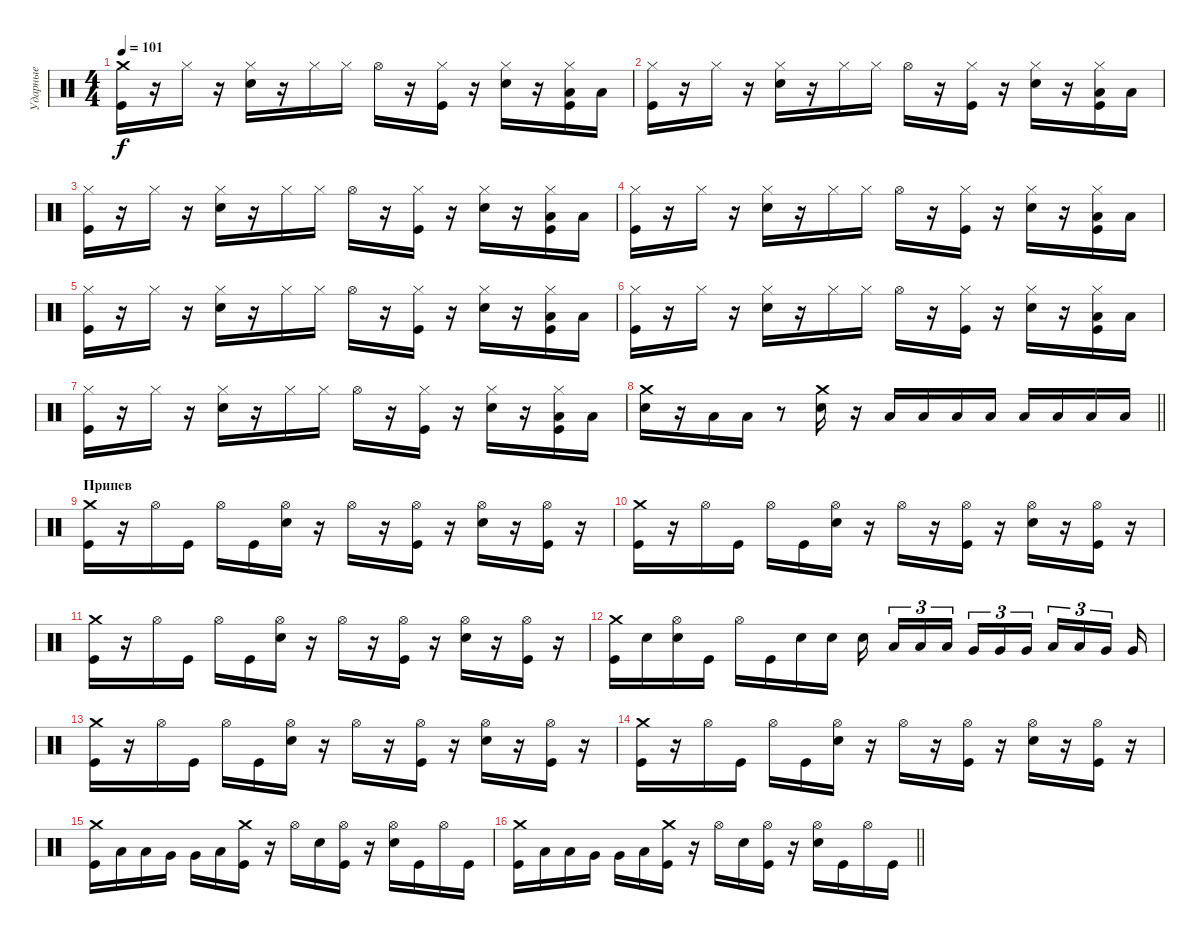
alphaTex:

\track ("Ударные" "Ударные") {instrument percussion}
\staff {score}
\articulation defaults
\ts (4 4)
\tempo 101
\clef neutral
\ks c
("Crash medium (hit)" "Kick (hit)").16{dy f} r.16 "Hi-Hat (closed)".16 r.16 ("Hi-Hat (closed)" "Electric Snare (hit)").16 r.16 "Hi-Hat (closed)".16 "Hi-Hat (closed)".16 "Hi-Hat (open)".16 r.16 ("Hi-Hat (closed)" "Kick (hit)").16 r.16 ("Hi-Hat (closed)" "Electric Snare (hit)").16 r.16 ("Hi-Hat (closed)" "Low Tom (hit)" "Kick (hit)").16 "Low Tom (hit)".16 |
("Hi-Hat (closed)" "Kick (hit)").16 r.16 "Hi-Hat (closed)".16 r.16 ("Hi-Hat (closed)" "Electric Snare (hit)").16 r.16 "Hi-Hat (closed)".16 "Hi-Hat (closed)".16 "Hi-Hat (open)".16 r.16 ("Hi-Hat (closed)" "Kick (hit)").16 r.16 ("Hi-Hat (closed)" "Electric Snare (hit)").16 r.16 ("Hi-Hat (closed)" "Low Tom (hit)" "Kick (hit)").16 "Low Tom (hit)".16 |
("Hi-Hat (closed)" "Kick (hit)").16 r.16 "Hi-Hat (closed)".16 r.16 ("Hi-Hat (closed)" "Electric Snare (hit)").16 r.16 "Hi-Hat (closed)".16 "Hi-Hat (closed)".16 "Hi-Hat (open)".16 r.16 ("Hi-Hat (closed)" "Kick (hit)").16 r.16 ("Hi-Hat (closed)" "Electric Snare (hit)").16 r.16 ("Hi-Hat (closed)" "Low Tom (hit)" "Kick (hit)").16 "Low Tom (hit)".16 |
("Hi-Hat (closed)" "Kick (hit)").16 r.16 "Hi-Hat (closed)".16 r.16 ("Hi-Hat (closed)" "Electric Snare (hit)").16 r.16 "Hi-Hat (closed)".16 "Hi-Hat (closed)".16 "Hi-Hat (open)".16 r.16 ("Hi-Hat (closed)" "Kick (hit)").16 r.16 ("Hi-Hat (closed)" "Electric Snare (hit)").16 r.16 ("Hi-Hat (closed)" "Low Tom (hit)" "Kick (hit)").16 "Low Tom (hit)".16 |
("Hi-Hat (closed)" "Kick (hit)").16 r.16 "Hi-Hat (closed)".16 r.16 ("Hi-Hat (closed)" "Electric Snare (hit)").16 r.16 "Hi-Hat (closed)".16 "Hi-Hat (closed)".16 "Hi-Hat (open)".16 r.16 ("Hi-Hat (closed)" "Kick (hit)").16 r.16 ("Hi-Hat (closed)" "Electric Snare (hit)").16 r.16 ("Hi-Hat (closed)" "Low Tom (hit)" "Kick (hit)").16 "Low Tom (hit)".16 |
("Hi-Hat (closed)" "Kick (hit)").16 r.16 "Hi-Hat (closed)".16 r.16 ("Hi-Hat (closed)" "Electric Snare (hit)").16 r.16 "Hi-Hat (closed)".16 "Hi-Hat (closed)".16 "Hi-Hat (open)".16 r.16 ("Hi-Hat (closed)" "Kick (hit)").16 r.16 ("Hi-Hat (closed)" "Electric Snare (hit)").16 r.16 ("Hi-Hat (closed)" "Low Tom (hit)" "Kick (hit)").16 "Low Tom (hit)".16 |
("Hi-Hat (closed)" "Kick (hit)").16 r.16 "Hi-Hat (closed)".16 r.16 ("Hi-Hat (closed)" "Electric Snare (hit)").16 r.16 "Hi-Hat (closed)".16 "Hi-Hat (closed)".16 "Hi-Hat (open)".16 r.16 ("Hi-Hat (closed)" "Kick (hit)").16 r.16 ("Hi-Hat (closed)" "Electric Snare (hit)").16 r.16 ("Hi-Hat (closed)" "Low Tom (hit)" "Kick (hit)").16 "Low Tom (hit)".16 |
\barLineRight lightlight
("Crash medium (hit)" "Electric Snare (hit)").16 r.16 "Low Tom (hit)".16 "Low Tom (hit)".16 r.8 ("Crash medium (hit)" "Electric Snare (hit)").16 r.16 "Low Tom (hit)".16 "Low Tom (hit)".16 "Low Tom (hit)".16 "Low Tom (hit)".16 "Low Tom (hit)".16 "Low Tom (hit)".16 "Low Tom (hit)".16 "Low Tom (hit)".16 |
\section ("" "Припев")
("Crash medium (hit)" "Kick (hit)").16 r.16 "Hi-Hat (open)".16 "Kick (hit)".16 "Hi-Hat (open)".16 "Kick (hit)".16 ("Hi-Hat (open)" "Electric Snare (hit)").16 r.16 "Hi-Hat (open)".16 r.16 ("Hi-Hat (open)" "Kick (hit)").16 r.16 ("Hi-Hat (open)" "Electric Snare (hit)").16 r.16 ("Hi-Hat (open)" "Kick (hit)").16 r.16 |
("Crash medium (hit)" "Kick (hit)").16 r.16 "Hi-Hat (open)".16 "Kick (hit)".16 "Hi-Hat (open)".16 "Kick (hit)".16 ("Hi-Hat (open)" "Electric Snare (hit)").16 r.16 "Hi-Hat (open)".16 r.16 ("Hi-Hat (open)" "Kick (hit)").16 r.16 ("Hi-Hat (open)" "Electric Snare (hit)").16 r.16 ("Hi-Hat (open)" "Kick (hit)").16 r.16 |
("Crash medium (hit)" "Kick (hit)").16 r.16 "Hi-Hat (open)".16 "Kick (hit)".16 "Hi-Hat (open)".16 "Kick (hit)".16 ("Hi-Hat (open)" "Electric Snare (hit)").16 r.16 "Hi-Hat (open)".16 r.16 ("Hi-Hat (open)" "Kick (hit)").16 r.16 ("Hi-Hat (open)" "Electric Snare (hit)").16 r.16 ("Hi-Hat (open)" "Kick (hit)").16 r.16 |
("Crash medium (hit)" "Kick (hit)").16 "Electric Snare (hit)".16 ("Hi-Hat (open)" "Electric Snare (hit)").16 "Kick (hit)".16 "Hi-Hat (open)".16 "Kick (hit)".16 "Electric Snare (hit)".16 "Electric Snare (hit)".16 "Electric Snare (hit)".16{beam splitsecondary} "Low Tom (hit)".16{tu (3 2)} "Low Tom (hit)".16{tu (3 2)} "Low Tom (hit)".16{tu (3 2) beam splitsecondary} "Very Low Tom (hit)".16{tu (3 2)} "Very Low Tom (hit)".16{tu (3 2)} "Very Low Tom (hit)".16{tu (3 2) beam splitsecondary} "Low Tom (hit)".16{tu (3 2)} "Low Tom (hit)".16{tu (3 2)} "Very Low Tom (hit)".16{tu (3 2) beam splitsecondary} "Very Low Tom (hit)".16 |
("Crash medium (hit)" "Kick (hit)").16 r.16 "Hi-Hat (open)".16 "Kick (hit)".16 "Hi-Hat (open)".16 "Kick (hit)".16 ("Hi-Hat (open)" "Electric Snare (hit)").16 r.16 "Hi-Hat (open)".16 r.16 ("Hi-Hat (open)" "Kick (hit)").16 r.16 ("Hi-Hat (open)" "Electric Snare (hit)").16 r.16 ("Hi-Hat (open)" "Kick (hit)").16 r.16 |
("Crash medium (hit)" "Kick (hit)").16 r.16 "Hi-Hat (open)".16 "Kick (hit)".16 "Hi-Hat (open)".16 "Kick (hit)".16 ("Hi-Hat (open)" "Electric Snare (hit)").16 r.16 "Hi-Hat (open)".16 r.16 ("Hi-Hat (open)" "Kick (hit)").16 r.16 ("Hi-Hat (open)" "Electric Snare (hit)").16 r.16 ("Hi-Hat (open)" "Kick (hit)").16 r.16 |
("Crash medium (hit)" "Kick (hit)").16 "Low Tom (hit)".16 "Low Tom (hit)".16 "Very Low Tom (hit)".16 "Very Low Tom (hit)".16 "Low Floor Tom (hit)".16 ("Crash medium (hit)" "Kick (hit)").16 r.16 "Hi-Hat (open)".16 "Electric Snare (hit)".16 ("Hi-Hat (open)" "Kick (hit)").16 r.16 ("Hi-Hat (open)" "Electric Snare (hit)").16 "Kick (hit)".16 "Hi-Hat (open)".16 "Kick (hit)".16 |
\barLineRight lightlight
("Crash medium (hit)" "Kick (hit)").16 "Low Tom (hit)".16 "Low Tom (hit)".16 "Very Low Tom (hit)".16 "Very Low Tom (hit)".16 "Low Floor Tom (hit)".16 ("Crash medium (hit)" "Kick (hit)").16 r.16 "Hi-Hat (open)".16 "Electric Snare (hit)".16 ("Hi-Hat (open)" "Kick (hit)").16 r.16 ("Hi-Hat (open)" "Electric Snare (hit)").16 "Kick (hit)".16 "Hi-Hat (open)".16 "Kick (hit)".16
